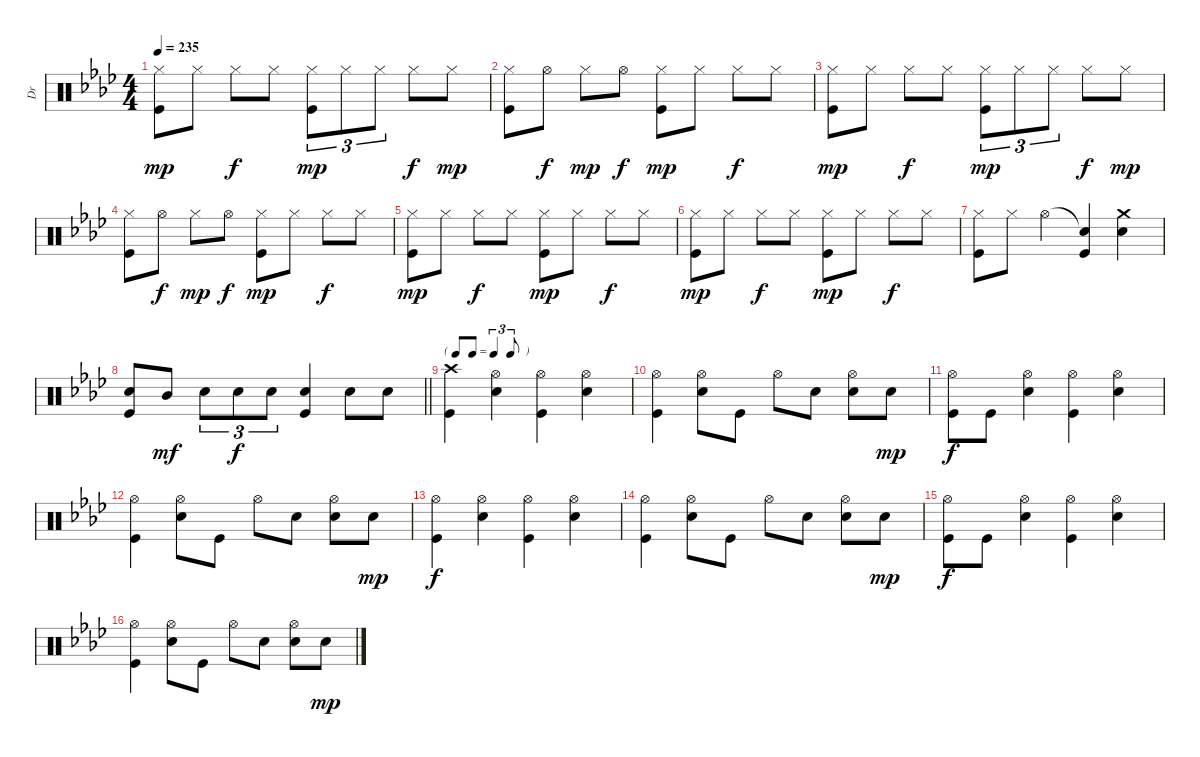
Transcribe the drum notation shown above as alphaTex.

\track ("Dr" "Dr") {instrument percussion}
\staff {score}
\articulation defaults
\ts (4 4)
\tempo 235
\clef neutral
\ks ab
("Hi-Hat (closed)" "Kick (hit)").8{dy mp} "Hi-Hat (closed)".8 "Hi-Hat (closed)".8{dy f} "Hi-Hat (closed)".8 ("Hi-Hat (closed)" "Kick (hit)").8{tu (3 2) dy mp} "Hi-Hat (closed)".8{tu (3 2)} "Hi-Hat (closed)".8{tu (3 2)} "Hi-Hat (closed)".8{dy f} "Hi-Hat (closed)".8{dy mp} |
("Hi-Hat (closed)" "Kick (hit)").8 "Hi-Hat (open)".8{dy f} "Hi-Hat (closed)".8{dy mp} "Hi-Hat (open)".8{dy f} ("Hi-Hat (closed)" "Kick (hit)").8{dy mp} "Hi-Hat (closed)".8 "Hi-Hat (closed)".8{dy f} "Hi-Hat (closed)".8 |
("Hi-Hat (closed)" "Kick (hit)").8{dy mp} "Hi-Hat (closed)".8 "Hi-Hat (closed)".8{dy f} "Hi-Hat (closed)".8 ("Hi-Hat (closed)" "Kick (hit)").8{tu (3 2) dy mp} "Hi-Hat (closed)".8{tu (3 2)} "Hi-Hat (closed)".8{tu (3 2)} "Hi-Hat (closed)".8{dy f} "Hi-Hat (closed)".8{dy mp} |
("Hi-Hat (closed)" "Kick (hit)").8 "Hi-Hat (open)".8{dy f} "Hi-Hat (closed)".8{dy mp} "Hi-Hat (open)".8{dy f} ("Hi-Hat (closed)" "Kick (hit)").8{dy mp} "Hi-Hat (closed)".8 "Hi-Hat (closed)".8{dy f} "Hi-Hat (closed)".8 |
("Hi-Hat (closed)" "Kick (hit)").8{dy mp} "Hi-Hat (closed)".8 "Hi-Hat (closed)".8{dy f} "Hi-Hat (closed)".8 ("Hi-Hat (closed)" "Kick (hit)").8{dy mp} "Hi-Hat (closed)".8 "Hi-Hat (closed)".8{dy f} "Hi-Hat (closed)".8 |
("Hi-Hat (closed)" "Kick (hit)").8{dy mp} "Hi-Hat (closed)".8 "Hi-Hat (closed)".8{dy f} "Hi-Hat (closed)".8 ("Hi-Hat (closed)" "Kick (hit)").8{dy mp} "Hi-Hat (closed)".8 "Hi-Hat (closed)".8{dy f} "Hi-Hat (closed)".8 |
("Hi-Hat (closed)" "Kick (hit)").8 "Hi-Hat (closed)".8 "Hi-Hat (open)".4 ("Snare (hit)"{t} "Kick (hit)").4 ("Crash medium (hit)" "Electric Snare (hit)").4 |
\barLineRight lightlight
("Electric Snare (hit)" "Kick (hit)").8 "Mid Tom (hit)".8{dy mf} "Electric Snare (hit)".8{tu (3 2)} "Electric Snare (hit)".8{tu (3 2) dy f} "Electric Snare (hit)".8{tu (3 2)} ("Electric Snare (hit)" "Kick (hit)").4 "Electric Snare (hit)".8 "Electric Snare (hit)".8 |
\tf triplet8th
\section ("" "")
("Crash high (hit)" "Kick (hit)").4 ("Hi-Hat (open)" "Electric Snare (hit)").4 ("Hi-Hat (open)" "Kick (hit)").4 ("Hi-Hat (open)" "Electric Snare (hit)").4 |
("Hi-Hat (open)" "Kick (hit)").4 ("Hi-Hat (open)" "Electric Snare (hit)").8 "Kick (hit)".8 "Hi-Hat (open)".8 "Electric Snare (hit)".8 ("Hi-Hat (open)" "Electric Snare (hit)").8 "Electric Snare (hit)".8{dy mp} |
("Hi-Hat (open)" "Kick (hit)").8{dy f} "Kick (hit)".8 ("Hi-Hat (open)" "Electric Snare (hit)").4 ("Hi-Hat (open)" "Kick (hit)").4 ("Hi-Hat (open)" "Electric Snare (hit)").4 |
("Hi-Hat (open)" "Kick (hit)").4 ("Hi-Hat (open)" "Electric Snare (hit)").8 "Kick (hit)".8 "Hi-Hat (open)".8 "Electric Snare (hit)".8 ("Hi-Hat (open)" "Electric Snare (hit)").8 "Electric Snare (hit)".8{dy mp} |
("Hi-Hat (open)" "Kick (hit)").4{dy f} ("Hi-Hat (open)" "Electric Snare (hit)").4 ("Hi-Hat (open)" "Kick (hit)").4 ("Hi-Hat (open)" "Electric Snare (hit)").4 |
("Hi-Hat (open)" "Kick (hit)").4 ("Hi-Hat (open)" "Electric Snare (hit)").8 "Kick (hit)".8 "Hi-Hat (open)".8 "Electric Snare (hit)".8 ("Hi-Hat (open)" "Electric Snare (hit)").8 "Electric Snare (hit)".8{dy mp} |
("Hi-Hat (open)" "Kick (hit)").8{dy f} "Kick (hit)".8 ("Hi-Hat (open)" "Electric Snare (hit)").4 ("Hi-Hat (open)" "Kick (hit)").4 ("Hi-Hat (open)" "Electric Snare (hit)").4 |
("Hi-Hat (open)" "Kick (hit)").4 ("Hi-Hat (open)" "Electric Snare (hit)").8 "Kick (hit)".8 "Hi-Hat (open)".8 "Electric Snare (hit)".8 ("Hi-Hat (open)" "Electric Snare (hit)").8 "Electric Snare (hit)".8{dy mp}
